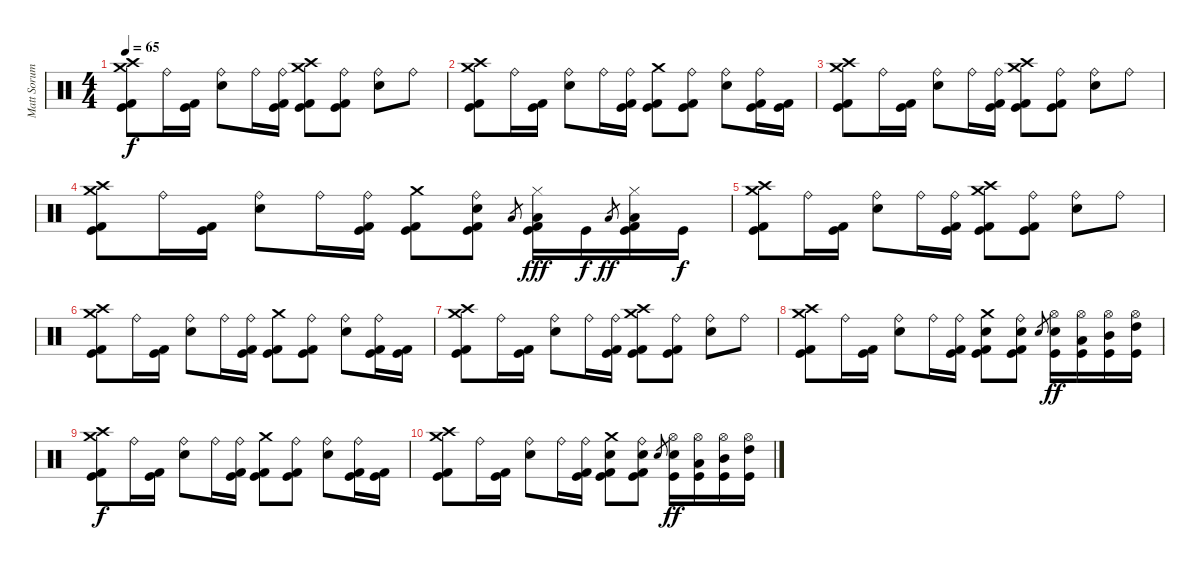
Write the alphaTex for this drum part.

\track ("Matt Sorum" "Matt Sorum") {instrument percussion}
\staff {score}
\articulation defaults
\ts (4 4)
\tempo 65
\clef neutral
\ks c
("Crash medium (hit)" "Crash high (hit)" "Kick (hit) 2" "Kick (hit)").8{dy f} "Ride (bell)".16 ("Kick (hit) 2" "Kick (hit)").16 ("Ride (bell)" "Electric Snare (hit)").8 "Ride (bell)".16 ("Ride (bell)" "Kick (hit) 2" "Kick (hit)").16 ("Crash medium (hit)" "Crash high (hit)" "Kick (hit) 2" "Kick (hit)").8 ("Ride (bell)" "Kick (hit) 2" "Kick (hit)").8 ("Ride (bell)" "Electric Snare (hit)").8 "Ride (bell)".8 |
("Crash medium (hit)" "Crash high (hit)" "Kick (hit) 2" "Kick (hit)").8 "Ride (bell)".16 ("Kick (hit) 2" "Kick (hit)").16 ("Ride (bell)" "Electric Snare (hit)").8 "Ride (bell)".16 ("Ride (bell)" "Kick (hit) 2" "Kick (hit)").16 ("Crash medium (hit)" "Kick (hit) 2" "Kick (hit)").8 ("Ride (bell)" "Kick (hit) 2" "Kick (hit)").8 ("Ride (bell)" "Electric Snare (hit)").8 ("Ride (bell)" "Kick (hit) 2" "Kick (hit)").16 ("Kick (hit) 2" "Kick (hit)").16 |
("Crash medium (hit)" "Crash high (hit)" "Kick (hit) 2" "Kick (hit)").8 "Ride (bell)".16 ("Kick (hit) 2" "Kick (hit)").16 ("Ride (bell)" "Electric Snare (hit)").8 "Ride (bell)".16 ("Ride (bell)" "Kick (hit) 2" "Kick (hit)").16 ("Crash medium (hit)" "Crash high (hit)" "Kick (hit) 2" "Kick (hit)").8 ("Ride (bell)" "Kick (hit) 2" "Kick (hit)").8 ("Ride (bell)" "Electric Snare (hit)").8 "Ride (bell)".8 |
("Crash medium (hit)" "Crash high (hit)" "Kick (hit) 2" "Kick (hit)").8 "Ride (bell)".16 ("Kick (hit) 2" "Kick (hit)").16 ("Ride (bell)" "Electric Snare (hit)").8 "Ride (bell)".16 ("Ride (bell)" "Kick (hit) 2" "Kick (hit)").16 ("Crash medium (hit)" "Kick (hit) 2" "Kick (hit)").8 ("Ride (bell)" "Electric Snare (hit)" "Kick (hit) 2" "Kick (hit)").8 "Low Tom (hit)".8{gr} ("Hi-Hat (closed)" "Low Tom (hit)" "Kick (hit) 2" "Kick (hit)").16{dy fff} "Kick (hit)".16{dy f} "Low Tom (hit)".8{gr dy ff} ("Hi-Hat (closed)" "Low Tom (hit)" "Kick (hit) 2" "Kick (hit)").16 "Kick (hit)".16{dy f} |
("Crash medium (hit)" "Crash high (hit)" "Kick (hit) 2" "Kick (hit)").8 "Ride (bell)".16 ("Kick (hit) 2" "Kick (hit)").16 ("Ride (bell)" "Electric Snare (hit)").8 "Ride (bell)".16 ("Ride (bell)" "Kick (hit) 2" "Kick (hit)").16 ("Crash medium (hit)" "Crash high (hit)" "Kick (hit) 2" "Kick (hit)").8 ("Ride (bell)" "Kick (hit) 2" "Kick (hit)").8 ("Ride (bell)" "Electric Snare (hit)").8 "Ride (bell)".8 |
("Crash medium (hit)" "Crash high (hit)" "Kick (hit) 2" "Kick (hit)").8 "Ride (bell)".16 ("Kick (hit) 2" "Kick (hit)").16 ("Ride (bell)" "Electric Snare (hit)").8 "Ride (bell)".16 ("Ride (bell)" "Kick (hit) 2" "Kick (hit)").16 ("Crash medium (hit)" "Kick (hit) 2" "Kick (hit)").8 ("Ride (bell)" "Kick (hit) 2" "Kick (hit)").8 ("Ride (bell)" "Electric Snare (hit)").8 ("Ride (bell)" "Kick (hit) 2" "Kick (hit)").16 ("Kick (hit) 2" "Kick (hit)").16 |
("Crash medium (hit)" "Crash high (hit)" "Kick (hit) 2" "Kick (hit)").8 "Ride (bell)".16 ("Kick (hit) 2" "Kick (hit)").16 ("Ride (bell)" "Electric Snare (hit)").8 "Ride (bell)".16 ("Ride (bell)" "Kick (hit) 2" "Kick (hit)").16 ("Crash medium (hit)" "Crash high (hit)" "Kick (hit) 2" "Kick (hit)").8 ("Ride (bell)" "Kick (hit) 2" "Kick (hit)").8 ("Ride (bell)" "Electric Snare (hit)").8 "Ride (bell)".8 |
("Crash medium (hit)" "Crash high (hit)" "Kick (hit) 2" "Kick (hit)").8 "Ride (bell)".16 ("Kick (hit) 2" "Kick (hit)").16 ("Ride (bell)" "Electric Snare (hit)").8 "Ride (bell)".16 ("Ride (bell)" "Kick (hit) 2" "Kick (hit)").16 ("Crash medium (hit)" "Electric Snare (hit)" "Kick (hit) 2" "Kick (hit)").8 ("Ride (bell)" "Electric Snare (hit)" "Kick (hit) 2" "Kick (hit)").8 "Electric Snare (hit)".8{gr} ("Hi-Hat (open)" "Electric Snare (hit)" "Kick (hit)").16{dy ff} ("Hi-Hat (open)" "Low Tom (hit)" "Kick (hit)").16 ("Hi-Hat (open)" "Mid Tom (hit)" "Kick (hit)").16 ("Hi-Hat (open)" "High Tom (hit)" "Kick (hit)").16 |
("Crash medium (hit)" "Crash high (hit)" "Kick (hit) 2" "Kick (hit)").8{dy f} "Ride (bell)".16 ("Kick (hit) 2" "Kick (hit)").16 ("Ride (bell)" "Electric Snare (hit)").8 "Ride (bell)".16 ("Ride (bell)" "Kick (hit) 2" "Kick (hit)").16 ("Crash medium (hit)" "Kick (hit) 2" "Kick (hit)").8 ("Ride (bell)" "Kick (hit) 2" "Kick (hit)").8 ("Ride (bell)" "Electric Snare (hit)").8 ("Ride (bell)" "Kick (hit) 2" "Kick (hit)").16 ("Kick (hit) 2" "Kick (hit)").16 |
("Crash medium (hit)" "Crash high (hit)" "Kick (hit) 2" "Kick (hit)").8 "Ride (bell)".16 ("Kick (hit) 2" "Kick (hit)").16 ("Ride (bell)" "Electric Snare (hit)").8 "Ride (bell)".16 ("Ride (bell)" "Kick (hit) 2" "Kick (hit)").16 ("Crash medium (hit)" "Electric Snare (hit)" "Kick (hit) 2" "Kick (hit)").8 ("Ride (bell)" "Electric Snare (hit)" "Kick (hit) 2" "Kick (hit)").8 "Electric Snare (hit)".8{gr} ("Hi-Hat (open)" "Electric Snare (hit)" "Kick (hit)").16{dy ff} ("Hi-Hat (open)" "Low Tom (hit)" "Kick (hit)").16 ("Hi-Hat (open)" "Mid Tom (hit)" "Kick (hit)").16 ("Hi-Hat (open)" "High Tom (hit)" "Kick (hit)").16
